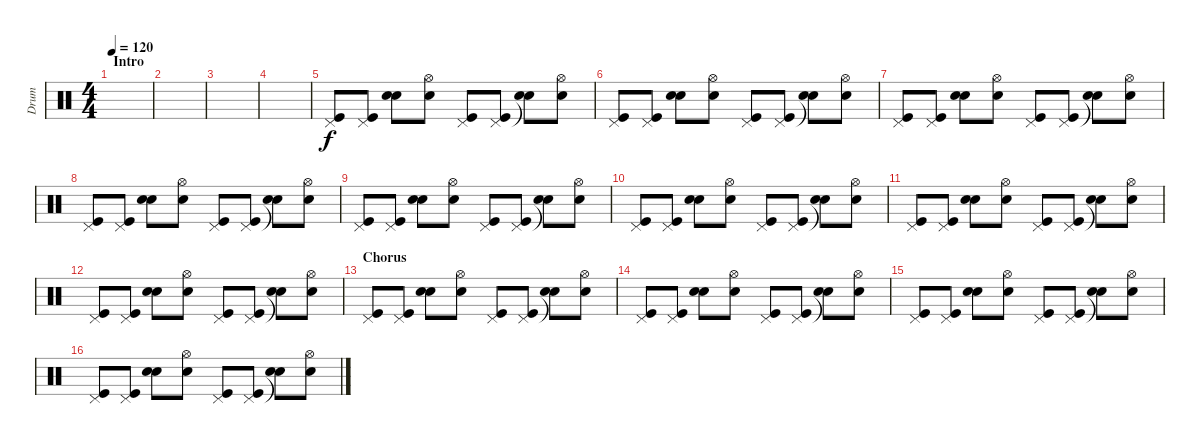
\track ("Drum" "Drum") {instrument percussion}
\staff {score}
\articulation defaults
\ts (4 4)
\section ("" "Intro")
\tempo 120
\clef neutral
\ks c
|
|
|
|
("Pedal Hi-Hat (hit)" "Kick (hit)").8 ("Pedal Hi-Hat (hit)" "Kick (hit)").8 ("Snare (hit) 2" "Snare (hit) 2").8 ("Hi-Hat (open)" "Snare (hit) 2").8 ("Pedal Hi-Hat (hit)" "Kick (hit)").8 ("Pedal Hi-Hat (hit)" "Kick (hit)").8 ("Snare (hit) 2"{t} "Snare (hit) 2").8 ("Hi-Hat (open)" "Snare (hit) 2").8 |
("Pedal Hi-Hat (hit)" "Kick (hit)").8 ("Pedal Hi-Hat (hit)" "Kick (hit)").8 ("Snare (hit) 2" "Snare (hit) 2").8 ("Hi-Hat (open)" "Snare (hit) 2").8 ("Pedal Hi-Hat (hit)" "Kick (hit)").8 ("Pedal Hi-Hat (hit)" "Kick (hit)").8 ("Snare (hit) 2"{t} "Snare (hit) 2").8 ("Hi-Hat (open)" "Snare (hit) 2").8 |
("Pedal Hi-Hat (hit)" "Kick (hit)").8 ("Pedal Hi-Hat (hit)" "Kick (hit)").8 ("Snare (hit) 2" "Snare (hit) 2").8 ("Hi-Hat (open)" "Snare (hit) 2").8 ("Pedal Hi-Hat (hit)" "Kick (hit)").8 ("Pedal Hi-Hat (hit)" "Kick (hit)").8 ("Snare (hit) 2"{t} "Snare (hit) 2").8 ("Hi-Hat (open)" "Snare (hit) 2").8 |
("Pedal Hi-Hat (hit)" "Kick (hit)").8 ("Pedal Hi-Hat (hit)" "Kick (hit)").8 ("Snare (hit) 2" "Snare (hit) 2").8 ("Hi-Hat (open)" "Snare (hit) 2").8 ("Pedal Hi-Hat (hit)" "Kick (hit)").8 ("Pedal Hi-Hat (hit)" "Kick (hit)").8 ("Snare (hit) 2"{t} "Snare (hit) 2").8 ("Hi-Hat (open)" "Snare (hit) 2").8 |
("Pedal Hi-Hat (hit)" "Kick (hit)").8 ("Pedal Hi-Hat (hit)" "Kick (hit)").8 ("Snare (hit) 2" "Snare (hit) 2").8 ("Hi-Hat (open)" "Snare (hit) 2").8 ("Pedal Hi-Hat (hit)" "Kick (hit)").8 ("Pedal Hi-Hat (hit)" "Kick (hit)").8 ("Snare (hit) 2"{t} "Snare (hit) 2").8 ("Hi-Hat (open)" "Snare (hit) 2").8 |
("Pedal Hi-Hat (hit)" "Kick (hit)").8 ("Pedal Hi-Hat (hit)" "Kick (hit)").8 ("Snare (hit) 2" "Snare (hit) 2").8 ("Hi-Hat (open)" "Snare (hit) 2").8 ("Pedal Hi-Hat (hit)" "Kick (hit)").8 ("Pedal Hi-Hat (hit)" "Kick (hit)").8 ("Snare (hit) 2"{t} "Snare (hit) 2").8 ("Hi-Hat (open)" "Snare (hit) 2").8 |
("Pedal Hi-Hat (hit)" "Kick (hit)").8 ("Pedal Hi-Hat (hit)" "Kick (hit)").8 ("Snare (hit) 2" "Snare (hit) 2").8 ("Hi-Hat (open)" "Snare (hit) 2").8 ("Pedal Hi-Hat (hit)" "Kick (hit)").8 ("Pedal Hi-Hat (hit)" "Kick (hit)").8 ("Snare (hit) 2"{t} "Snare (hit) 2").8 ("Hi-Hat (open)" "Snare (hit) 2").8 |
("Pedal Hi-Hat (hit)" "Kick (hit)").8 ("Pedal Hi-Hat (hit)" "Kick (hit)").8 ("Snare (hit) 2" "Snare (hit) 2").8 ("Hi-Hat (open)" "Snare (hit) 2").8 ("Pedal Hi-Hat (hit)" "Kick (hit)").8 ("Pedal Hi-Hat (hit)" "Kick (hit)").8 ("Snare (hit) 2"{t} "Snare (hit) 2").8 ("Hi-Hat (open)" "Snare (hit) 2").8 |
\section ("" "Chorus")
("Pedal Hi-Hat (hit)" "Kick (hit)").8 ("Pedal Hi-Hat (hit)" "Kick (hit)").8 ("Snare (hit) 2" "Snare (hit) 2").8 ("Hi-Hat (open)" "Snare (hit) 2").8 ("Pedal Hi-Hat (hit)" "Kick (hit)").8 ("Pedal Hi-Hat (hit)" "Kick (hit)").8 ("Snare (hit) 2"{t} "Snare (hit) 2").8 ("Hi-Hat (open)" "Snare (hit) 2").8 |
("Pedal Hi-Hat (hit)" "Kick (hit)").8 ("Pedal Hi-Hat (hit)" "Kick (hit)").8 ("Snare (hit) 2" "Snare (hit) 2").8 ("Hi-Hat (open)" "Snare (hit) 2").8 ("Pedal Hi-Hat (hit)" "Kick (hit)").8 ("Pedal Hi-Hat (hit)" "Kick (hit)").8 ("Snare (hit) 2"{t} "Snare (hit) 2").8 ("Hi-Hat (open)" "Snare (hit) 2").8 |
("Pedal Hi-Hat (hit)" "Kick (hit)").8 ("Pedal Hi-Hat (hit)" "Kick (hit)").8 ("Snare (hit) 2" "Snare (hit) 2").8 ("Hi-Hat (open)" "Snare (hit) 2").8 ("Pedal Hi-Hat (hit)" "Kick (hit)").8 ("Pedal Hi-Hat (hit)" "Kick (hit)").8 ("Snare (hit) 2"{t} "Snare (hit) 2").8 ("Hi-Hat (open)" "Snare (hit) 2").8 |
("Pedal Hi-Hat (hit)" "Kick (hit)").8 ("Pedal Hi-Hat (hit)" "Kick (hit)").8 ("Snare (hit) 2" "Snare (hit) 2").8 ("Hi-Hat (open)" "Snare (hit) 2").8 ("Pedal Hi-Hat (hit)" "Kick (hit)").8 ("Pedal Hi-Hat (hit)" "Kick (hit)").8 ("Snare (hit) 2"{t} "Snare (hit) 2").8 ("Hi-Hat (open)" "Snare (hit) 2").8
